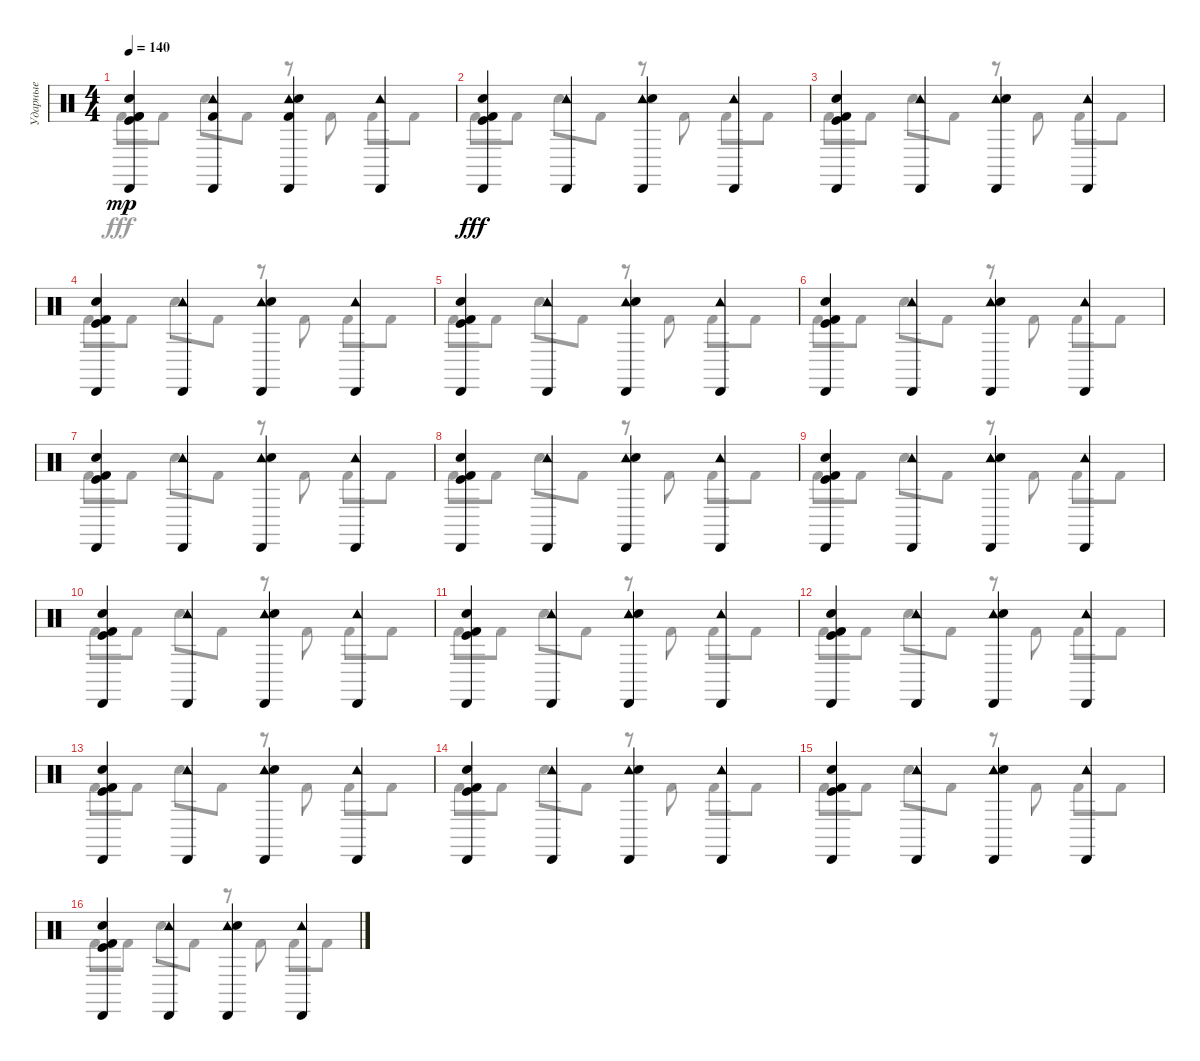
\track ("Ударные" "Ударные") {instrument percussion}
\staff {score}
\articulation defaults
\voice
\ts (4 4)
\tempo 140
\clef neutral
\ks c
("Cabasa (hit)" "Electric Snare (hit)" "Kick (hit) 2" "Kick (hit)" "Kick (hit) 2").4{dy mp} ("Cabasa (hit)" "Tambourine (hit)" "Kick (hit) 2").4 ("Cabasa (hit)" "Tambourine (hit)" "Electric Snare (hit)" "Kick (hit) 2").4 ("Cabasa (hit)" "Tambourine (hit)").4 |
("Cabasa (hit)" "Electric Snare (hit)" "Kick (hit) 2" "Kick (hit)").4{dy fff} ("Cabasa (hit)" "Tambourine (hit)").4 ("Cabasa (hit)" "Tambourine (hit)" "Electric Snare (hit)").4 ("Cabasa (hit)" "Tambourine (hit)").4 |
("Cabasa (hit)" "Electric Snare (hit)" "Kick (hit) 2" "Kick (hit)").4 ("Cabasa (hit)" "Tambourine (hit)").4 ("Cabasa (hit)" "Tambourine (hit)" "Electric Snare (hit)").4 ("Cabasa (hit)" "Tambourine (hit)").4 |
("Cabasa (hit)" "Electric Snare (hit)" "Kick (hit) 2" "Kick (hit)").4 ("Cabasa (hit)" "Tambourine (hit)").4 ("Cabasa (hit)" "Tambourine (hit)" "Electric Snare (hit)").4 ("Cabasa (hit)" "Tambourine (hit)").4 |
("Cabasa (hit)" "Electric Snare (hit)" "Kick (hit) 2" "Kick (hit)").4 ("Cabasa (hit)" "Tambourine (hit)").4 ("Cabasa (hit)" "Tambourine (hit)" "Electric Snare (hit)").4 ("Cabasa (hit)" "Tambourine (hit)").4 |
("Cabasa (hit)" "Electric Snare (hit)" "Kick (hit) 2" "Kick (hit)").4 ("Cabasa (hit)" "Tambourine (hit)").4 ("Cabasa (hit)" "Tambourine (hit)" "Electric Snare (hit)").4 ("Cabasa (hit)" "Tambourine (hit)").4 |
("Cabasa (hit)" "Electric Snare (hit)" "Kick (hit) 2" "Kick (hit)").4 ("Cabasa (hit)" "Tambourine (hit)").4 ("Cabasa (hit)" "Tambourine (hit)" "Electric Snare (hit)").4 ("Cabasa (hit)" "Tambourine (hit)").4 |
("Cabasa (hit)" "Electric Snare (hit)" "Kick (hit) 2" "Kick (hit)").4 ("Cabasa (hit)" "Tambourine (hit)").4 ("Cabasa (hit)" "Tambourine (hit)" "Electric Snare (hit)").4 ("Cabasa (hit)" "Tambourine (hit)").4 |
("Cabasa (hit)" "Electric Snare (hit)" "Kick (hit) 2" "Kick (hit)").4 ("Cabasa (hit)" "Tambourine (hit)").4 ("Cabasa (hit)" "Tambourine (hit)" "Electric Snare (hit)").4 ("Cabasa (hit)" "Tambourine (hit)").4 |
("Cabasa (hit)" "Electric Snare (hit)" "Kick (hit) 2" "Kick (hit)").4 ("Cabasa (hit)" "Tambourine (hit)").4 ("Cabasa (hit)" "Tambourine (hit)" "Electric Snare (hit)").4 ("Cabasa (hit)" "Tambourine (hit)").4 |
("Cabasa (hit)" "Electric Snare (hit)" "Kick (hit) 2" "Kick (hit)").4 ("Cabasa (hit)" "Tambourine (hit)").4 ("Cabasa (hit)" "Tambourine (hit)" "Electric Snare (hit)").4 ("Cabasa (hit)" "Tambourine (hit)").4 |
("Cabasa (hit)" "Electric Snare (hit)" "Kick (hit) 2" "Kick (hit)").4 ("Cabasa (hit)" "Tambourine (hit)").4 ("Cabasa (hit)" "Tambourine (hit)" "Electric Snare (hit)").4 ("Cabasa (hit)" "Tambourine (hit)").4 |
("Cabasa (hit)" "Electric Snare (hit)" "Kick (hit) 2" "Kick (hit)").4 ("Cabasa (hit)" "Tambourine (hit)").4 ("Cabasa (hit)" "Tambourine (hit)" "Electric Snare (hit)").4 ("Cabasa (hit)" "Tambourine (hit)").4 |
("Cabasa (hit)" "Electric Snare (hit)" "Kick (hit) 2" "Kick (hit)").4 ("Cabasa (hit)" "Tambourine (hit)").4 ("Cabasa (hit)" "Tambourine (hit)" "Electric Snare (hit)").4 ("Cabasa (hit)" "Tambourine (hit)").4 |
("Cabasa (hit)" "Electric Snare (hit)" "Kick (hit) 2" "Kick (hit)").4 ("Cabasa (hit)" "Tambourine (hit)").4 ("Cabasa (hit)" "Tambourine (hit)" "Electric Snare (hit)").4 ("Cabasa (hit)" "Tambourine (hit)").4 |
("Cabasa (hit)" "Electric Snare (hit)" "Kick (hit) 2" "Kick (hit)").4 ("Cabasa (hit)" "Tambourine (hit)").4 ("Cabasa (hit)" "Tambourine (hit)" "Electric Snare (hit)").4 ("Cabasa (hit)" "Tambourine (hit)").4
\voice
\clef neutral
\ottava regular
\simile none
\ks c "Kick (hit) 2".8{dy fff} "Kick (hit) 2".8 "Snare (hit)".8 "Kick (hit) 2".8
r.8 "Kick (hit) 2".8 "Kick (hit) 2".8 "Kick (hit) 2".8 |
"Kick (hit) 2".8 "Kick (hit) 2".8 "Snare (hit)".8 "Kick (hit) 2".8 r.8 "Kick (hit) 2".8 "Kick (hit) 2".8 "Kick (hit) 2".8 |
"Kick (hit) 2".8 "Kick (hit) 2".8 "Snare (hit)".8 "Kick (hit) 2".8 r.8 "Kick (hit) 2".8 "Kick (hit) 2".8 "Kick (hit) 2".8 |
"Kick (hit) 2".8 "Kick (hit) 2".8 "Snare (hit)".8 "Kick (hit) 2".8 r.8 "Kick (hit) 2".8 "Kick (hit) 2".8 "Kick (hit) 2".8 |
"Kick (hit) 2".8 "Kick (hit) 2".8 "Snare (hit)".8 "Kick (hit) 2".8 r.8 "Kick (hit) 2".8 "Kick (hit) 2".8 "Kick (hit) 2".8 |
"Kick (hit) 2".8 "Kick (hit) 2".8 "Snare (hit)".8 "Kick (hit) 2".8 r.8 "Kick (hit) 2".8 "Kick (hit) 2".8 "Kick (hit) 2".8 |
"Kick (hit) 2".8 "Kick (hit) 2".8 "Snare (hit)".8 "Kick (hit) 2".8 r.8 "Kick (hit) 2".8 "Kick (hit) 2".8 "Kick (hit) 2".8 |
"Kick (hit) 2".8 "Kick (hit) 2".8 "Snare (hit)".8 "Kick (hit) 2".8 r.8 "Kick (hit) 2".8 "Kick (hit) 2".8 "Kick (hit) 2".8 |
"Kick (hit) 2".8 "Kick (hit) 2".8 "Snare (hit)".8 "Kick (hit) 2".8 r.8 "Kick (hit) 2".8 "Kick (hit) 2".8 "Kick (hit) 2".8 |
"Kick (hit) 2".8 "Kick (hit) 2".8 "Snare (hit)".8 "Kick (hit) 2".8 r.8 "Kick (hit) 2".8 "Kick (hit) 2".8 "Kick (hit) 2".8 |
"Kick (hit) 2".8 "Kick (hit) 2".8 "Snare (hit)".8 "Kick (hit) 2".8 r.8 "Kick (hit) 2".8 "Kick (hit) 2".8 "Kick (hit) 2".8 |
"Kick (hit) 2".8 "Kick (hit) 2".8 "Snare (hit)".8 "Kick (hit) 2".8 r.8 "Kick (hit) 2".8 "Kick (hit) 2".8 "Kick (hit) 2".8 |
"Kick (hit) 2".8 "Kick (hit) 2".8 "Snare (hit)".8 "Kick (hit) 2".8 r.8 "Kick (hit) 2".8 "Kick (hit) 2".8 "Kick (hit) 2".8 |
"Kick (hit) 2".8 "Kick (hit) 2".8 "Snare (hit)".8 "Kick (hit) 2".8 r.8 "Kick (hit) 2".8 "Kick (hit) 2".8 "Kick (hit) 2".8 |
"Kick (hit) 2".8 "Kick (hit) 2".8 "Snare (hit)".8 "Kick (hit) 2".8 r.8 "Kick (hit) 2".8 "Kick (hit) 2".8 "Kick (hit) 2".8 |
"Kick (hit) 2".8 "Kick (hit) 2".8 "Snare (hit)".8 "Kick (hit) 2".8 r.8 "Kick (hit) 2".8 "Kick (hit) 2".8 "Kick (hit) 2".8
